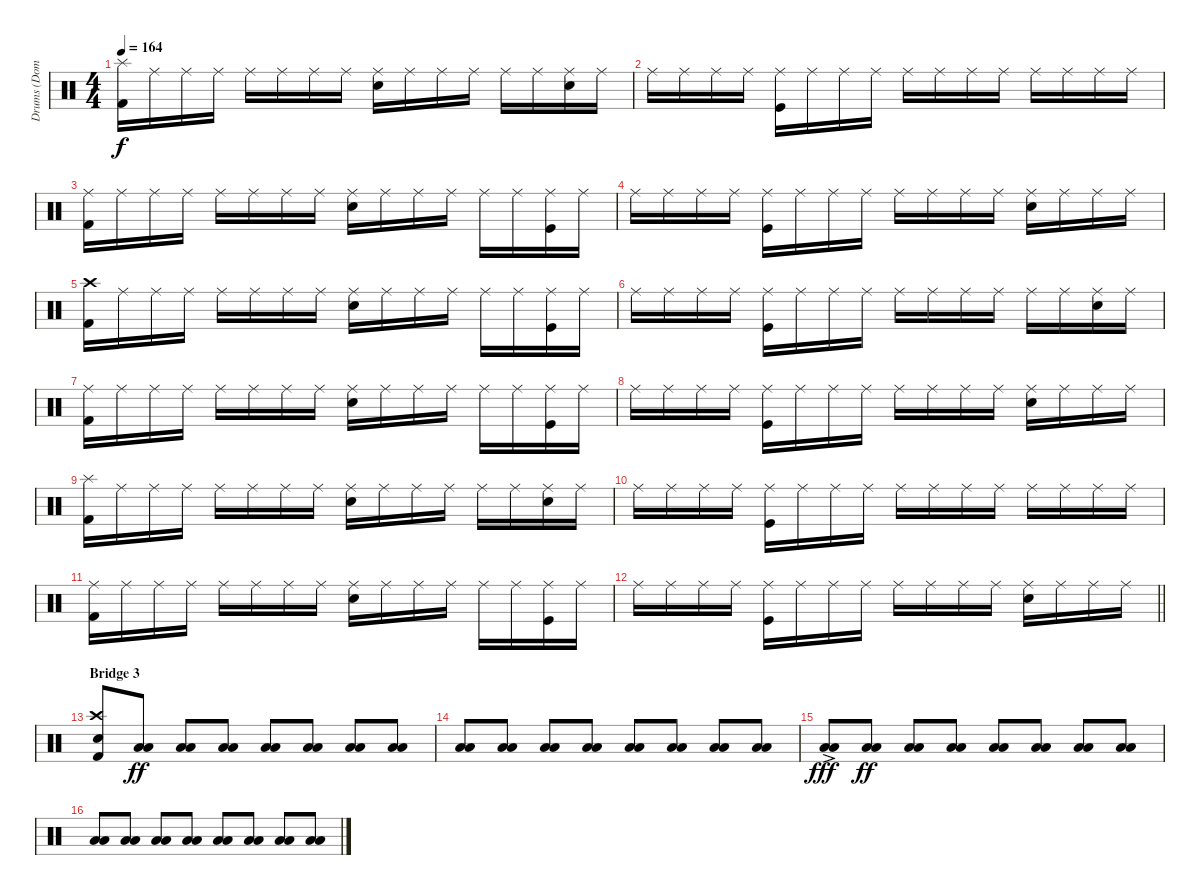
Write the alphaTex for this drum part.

\track ("Drums (Dominik)" "Drums (Dom") {instrument percussion}
\staff {score}
\articulation defaults
\ts (4 4)
\tempo 164
\clef neutral
\ks c
("Splash (hit)" "Kick (hit) 2").16{dy f} "Ride (middle)".16 "Ride (middle)".16 "Ride (middle)".16 "Ride (middle)".16 "Ride (middle)".16 "Ride (middle)".16 "Ride (middle)".16 ("Ride (middle)" "Snare (hit) 2").16 "Ride (middle)".16 "Ride (middle)".16 "Ride (middle)".16 "Ride (middle)".16 "Ride (middle)".16 ("Ride (middle)" "Snare (hit) 2").16 "Ride (middle)".16 |
"Ride (middle)".16 "Ride (middle)".16 "Ride (middle)".16 "Ride (middle)".16 ("Ride (middle)" "Kick (hit)").16 "Ride (middle)".16 "Ride (middle)".16 "Ride (middle)".16 "Ride (middle)".16 "Ride (middle)".16 "Ride (middle)".16 "Ride (middle)".16 "Ride (middle)".16 "Ride (middle)".16 "Ride (middle)".16 "Ride (middle)".16 |
("Ride (middle)" "Kick (hit) 2").16 "Ride (middle)".16 "Ride (middle)".16 "Ride (middle)".16 "Ride (middle)".16 "Ride (middle)".16 "Ride (middle)".16 "Ride (middle)".16 ("Ride (middle)" "Snare (hit) 2").16 "Ride (middle)".16 "Ride (middle)".16 "Ride (middle)".16 "Ride (middle)".16 "Ride (middle)".16 ("Ride (middle)" "Kick (hit)").16 "Ride (middle)".16 |
"Ride (middle)".16 "Ride (middle)".16 "Ride (middle)".16 "Ride (middle)".16 ("Ride (middle)" "Kick (hit)").16 "Ride (middle)".16 "Ride (middle)".16 "Ride (middle)".16 "Ride (middle)".16 "Ride (middle)".16 "Ride (middle)".16 "Ride (middle)".16 ("Ride (middle)" "Snare (hit) 2").16 "Ride (middle)".16 "Ride (middle)".16 "Ride (middle)".16 |
("Crash high (hit)" "Kick (hit) 2").16 "Ride (middle)".16 "Ride (middle)".16 "Ride (middle)".16 "Ride (middle)".16 "Ride (middle)".16 "Ride (middle)".16 "Ride (middle)".16 ("Ride (middle)" "Snare (hit) 2").16 "Ride (middle)".16 "Ride (middle)".16 "Ride (middle)".16 "Ride (middle)".16 "Ride (middle)".16 ("Ride (middle)" "Kick (hit)").16 "Ride (middle)".16 |
"Ride (middle)".16 "Ride (middle)".16 "Ride (middle)".16 "Ride (middle)".16 ("Ride (middle)" "Kick (hit)").16 "Ride (middle)".16 "Ride (middle)".16 "Ride (middle)".16 "Ride (middle)".16 "Ride (middle)".16 "Ride (middle)".16 "Ride (middle)".16 "Ride (middle)".16 "Ride (middle)".16 ("Ride (middle)" "Snare (hit) 2").16 "Ride (middle)".16 |
("Ride (middle)" "Kick (hit) 2").16 "Ride (middle)".16 "Ride (middle)".16 "Ride (middle)".16 "Ride (middle)".16 "Ride (middle)".16 "Ride (middle)".16 "Ride (middle)".16 ("Ride (middle)" "Snare (hit) 2").16 "Ride (middle)".16 "Ride (middle)".16 "Ride (middle)".16 "Ride (middle)".16 "Ride (middle)".16 ("Ride (middle)" "Kick (hit)").16 "Ride (middle)".16 |
"Ride (middle)".16 "Ride (middle)".16 "Ride (middle)".16 "Ride (middle)".16 ("Ride (middle)" "Kick (hit)").16 "Ride (middle)".16 "Ride (middle)".16 "Ride (middle)".16 "Ride (middle)".16 "Ride (middle)".16 "Ride (middle)".16 "Ride (middle)".16 ("Ride (middle)" "Snare (hit) 2").16 "Ride (middle)".16 "Ride (middle)".16 "Ride (middle)".16 |
("Splash (hit)" "Kick (hit) 2").16 "Ride (middle)".16 "Ride (middle)".16 "Ride (middle)".16 "Ride (middle)".16 "Ride (middle)".16 "Ride (middle)".16 "Ride (middle)".16 ("Ride (middle)" "Snare (hit) 2").16 "Ride (middle)".16 "Ride (middle)".16 "Ride (middle)".16 "Ride (middle)".16 "Ride (middle)".16 ("Ride (middle)" "Snare (hit) 2").16 "Ride (middle)".16 |
"Ride (middle)".16 "Ride (middle)".16 "Ride (middle)".16 "Ride (middle)".16 ("Ride (middle)" "Kick (hit)").16 "Ride (middle)".16 "Ride (middle)".16 "Ride (middle)".16 "Ride (middle)".16 "Ride (middle)".16 "Ride (middle)".16 "Ride (middle)".16 "Ride (middle)".16 "Ride (middle)".16 "Ride (middle)".16 "Ride (middle)".16 |
("Ride (middle)" "Kick (hit) 2").16 "Ride (middle)".16 "Ride (middle)".16 "Ride (middle)".16 "Ride (middle)".16 "Ride (middle)".16 "Ride (middle)".16 "Ride (middle)".16 ("Ride (middle)" "Snare (hit) 2").16 "Ride (middle)".16 "Ride (middle)".16 "Ride (middle)".16 "Ride (middle)".16 "Ride (middle)".16 ("Ride (middle)" "Kick (hit)").16 "Ride (middle)".16 |
\barLineRight lightlight "Ride (middle)".16 "Ride (middle)".16 "Ride (middle)".16 "Ride (middle)".16
("Ride (middle)" "Kick (hit)").16 "Ride (middle)".16 "Ride (middle)".16 "Ride (middle)".16 "Ride (middle)".16 "Ride (middle)".16 "Ride (middle)".16 "Ride (middle)".16 ("Ride (middle)" "Snare (hit) 2").16 "Ride (middle)".16 "Ride (middle)".16 "Ride (middle)".16 |
\section ("" "Bridge 3")
("Crash high (hit)" "Electric Snare (hit)" "Kick (hit) 2").8 ("Low Tom (hit)" "Low Floor Tom (hit)").8{dy ff} ("Low Tom (hit)" "Low Floor Tom (hit)").8 ("Low Tom (hit)" "Low Floor Tom (hit)").8 ("Low Tom (hit)" "Low Floor Tom (hit)").8 ("Low Tom (hit)" "Low Floor Tom (hit)").8 ("Low Tom (hit)" "Low Floor Tom (hit)").8 ("Low Tom (hit)" "Low Floor Tom (hit)").8 |
("Low Tom (hit)" "Low Floor Tom (hit)").8 ("Low Tom (hit)" "Low Floor Tom (hit)").8 ("Low Tom (hit)" "Low Floor Tom (hit)").8 ("Low Tom (hit)" "Low Floor Tom (hit)").8 ("Low Tom (hit)" "Low Floor Tom (hit)").8 ("Low Tom (hit)" "Low Floor Tom (hit)").8 ("Low Tom (hit)" "Low Floor Tom (hit)").8 ("Low Tom (hit)" "Low Floor Tom (hit)").8 |
("Low Tom (hit)"{ac} "Low Floor Tom (hit)"{ac}).8{dy fff} ("Low Tom (hit)" "Low Floor Tom (hit)").8{dy ff} ("Low Tom (hit)" "Low Floor Tom (hit)").8 ("Low Tom (hit)" "Low Floor Tom (hit)").8 ("Low Tom (hit)" "Low Floor Tom (hit)").8 ("Low Tom (hit)" "Low Floor Tom (hit)").8 ("Low Tom (hit)" "Low Floor Tom (hit)").8 ("Low Tom (hit)" "Low Floor Tom (hit)").8 |
("Low Tom (hit)" "Low Floor Tom (hit)").8 ("Low Tom (hit)" "Low Floor Tom (hit)").8 ("Low Tom (hit)" "Low Floor Tom (hit)").8 ("Low Tom (hit)" "Low Floor Tom (hit)").8 ("Low Tom (hit)" "Low Floor Tom (hit)").8 ("Low Tom (hit)" "Low Floor Tom (hit)").8 ("Low Tom (hit)" "Low Floor Tom (hit)").8 ("Low Tom (hit)" "Low Floor Tom (hit)").8
